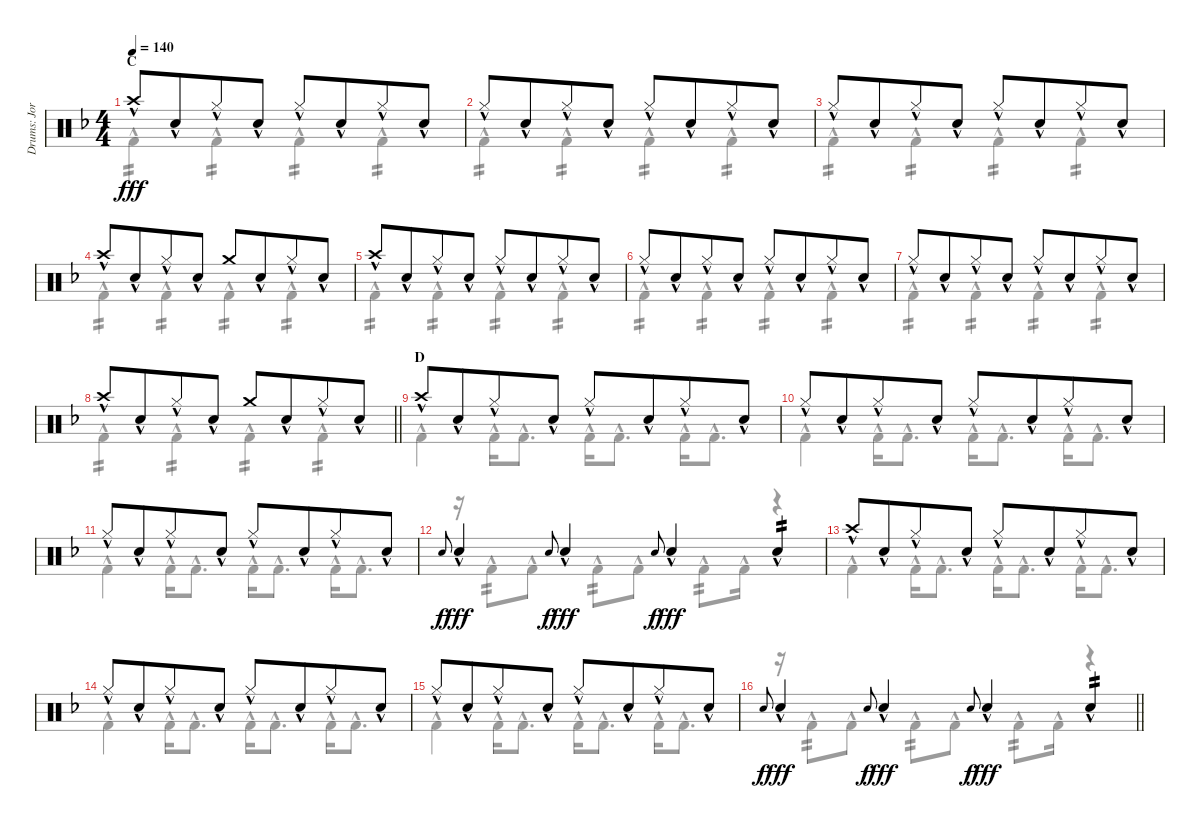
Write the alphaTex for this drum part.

\track ("Drums: Jorg" "Drums: Jor") {instrument percussion}
\staff {score}
\articulation defaults
\voice
\ts (4 4)
\section ("" "C")
\tempo 140
\clef neutral
\ks f "Crash high (hit)"{hac}.8{dy fff} "Snare (hit) 2"{hac}.8{beam merge} "Hi-Hat (closed)"{hac}.8 "Snare (hit) 2"{hac}.8 "Hi-Hat (closed)"{hac}.8 "Snare (hit) 2"{hac}.8{beam merge} "Hi-Hat (closed)"{hac}.8 "Snare (hit) 2"{hac}.8
|
"Hi-Hat (closed)"{hac}.8 "Snare (hit) 2"{hac}.8{beam merge} "Hi-Hat (closed)"{hac}.8 "Snare (hit) 2"{hac}.8 "Hi-Hat (closed)"{hac}.8 "Snare (hit) 2"{hac}.8{beam merge} "Hi-Hat (closed)"{hac}.8 "Snare (hit) 2"{hac}.8 |
"Hi-Hat (closed)"{hac}.8 "Snare (hit) 2"{hac}.8{beam merge} "Hi-Hat (closed)"{hac}.8 "Snare (hit) 2"{hac}.8 "Hi-Hat (closed)"{hac}.8 "Snare (hit) 2"{hac}.8{beam merge} "Hi-Hat (closed)"{hac}.8 "Snare (hit) 2"{hac}.8 |
"Crash high (hit)"{hac}.8 "Snare (hit) 2"{hac}.8{beam merge} "Hi-Hat (closed)"{hac}.8 "Snare (hit) 2"{hac}.8 "Crash medium (hit)".8 "Snare (hit) 2"{hac}.8{beam merge} "Hi-Hat (closed)"{hac}.8 "Snare (hit) 2"{hac}.8 |
"Crash high (hit)"{hac}.8 "Snare (hit) 2"{hac}.8{beam merge} "Hi-Hat (closed)"{hac}.8 "Snare (hit) 2"{hac}.8 "Hi-Hat (closed)"{hac}.8 "Snare (hit) 2"{hac}.8{beam merge} "Hi-Hat (closed)"{hac}.8 "Snare (hit) 2"{hac}.8 |
"Hi-Hat (closed)"{hac}.8 "Snare (hit) 2"{hac}.8{beam merge} "Hi-Hat (closed)"{hac}.8 "Snare (hit) 2"{hac}.8 "Hi-Hat (closed)"{hac}.8 "Snare (hit) 2"{hac}.8{beam merge} "Hi-Hat (closed)"{hac}.8 "Snare (hit) 2"{hac}.8 |
"Hi-Hat (closed)"{hac}.8 "Snare (hit) 2"{hac}.8{beam merge} "Hi-Hat (closed)"{hac}.8 "Snare (hit) 2"{hac}.8 "Hi-Hat (closed)"{hac}.8 "Snare (hit) 2"{hac}.8{beam merge} "Hi-Hat (closed)"{hac}.8 "Snare (hit) 2"{hac}.8 |
\barLineRight lightlight "Crash high (hit)"{hac}.8 "Snare (hit) 2"{hac}.8{beam merge} "Hi-Hat (closed)"{hac}.8 "Snare (hit) 2"{hac}.8 "Crash medium (hit)".8 "Snare (hit) 2"{hac}.8{beam merge} "Hi-Hat (closed)"{hac}.8 "Snare (hit) 2"{hac}.8
|
\section ("" "D")
"Crash high (hit)"{hac}.8 "Snare (hit) 2"{hac}.8{beam merge} "Hi-Hat (closed)"{hac}.8 "Snare (hit) 2"{hac}.8 "Hi-Hat (closed)"{hac}.8 "Snare (hit) 2"{hac}.8{beam merge} "Hi-Hat (closed)"{hac}.8 "Snare (hit) 2"{hac}.8 |
"Hi-Hat (closed)"{hac}.8 "Snare (hit) 2"{hac}.8{beam merge} "Hi-Hat (closed)"{hac}.8 "Snare (hit) 2"{hac}.8 "Hi-Hat (closed)"{hac}.8 "Snare (hit) 2"{hac}.8{beam merge} "Hi-Hat (closed)"{hac}.8 "Snare (hit) 2"{hac}.8 |
"Hi-Hat (closed)"{hac}.8 "Snare (hit) 2"{hac}.8{beam merge} "Hi-Hat (closed)"{hac}.8 "Snare (hit) 2"{hac}.8 "Hi-Hat (closed)"{hac}.8 "Snare (hit) 2"{hac}.8{beam merge} "Hi-Hat (closed)"{hac}.8 "Snare (hit) 2"{hac}.8 |
"Snare (hit) 2".8{gr onbeat dy f} "Electric Snare (hit)"{hac}.4{dy fff} "Snare (hit) 2".8{gr onbeat dy f} "Electric Snare (hit)"{hac}.4{dy fff} "Snare (hit) 2".8{gr onbeat dy f} "Electric Snare (hit)"{hac}.4{dy fff} "Snare (hit) 2"{hac}.4{tp 2} |
"Crash high (hit)"{hac}.8 "Snare (hit) 2"{hac}.8{beam merge} "Hi-Hat (closed)"{hac}.8 "Snare (hit) 2"{hac}.8 "Hi-Hat (closed)"{hac}.8 "Snare (hit) 2"{hac}.8{beam merge} "Hi-Hat (closed)"{hac}.8 "Snare (hit) 2"{hac}.8 |
"Hi-Hat (closed)"{hac}.8 "Snare (hit) 2"{hac}.8{beam merge} "Hi-Hat (closed)"{hac}.8 "Snare (hit) 2"{hac}.8 "Hi-Hat (closed)"{hac}.8 "Snare (hit) 2"{hac}.8{beam merge} "Hi-Hat (closed)"{hac}.8 "Snare (hit) 2"{hac}.8 |
"Hi-Hat (closed)"{hac}.8 "Snare (hit) 2"{hac}.8{beam merge} "Hi-Hat (closed)"{hac}.8 "Snare (hit) 2"{hac}.8 "Hi-Hat (closed)"{hac}.8 "Snare (hit) 2"{hac}.8{beam merge} "Hi-Hat (closed)"{hac}.8 "Snare (hit) 2"{hac}.8 |
\barLineRight lightlight "Snare (hit) 2".8{gr onbeat dy f} "Electric Snare (hit)"{hac}.4{dy fff} "Snare (hit) 2".8{gr onbeat dy f} "Electric Snare (hit)"{hac}.4{dy fff} "Snare (hit) 2".8{gr onbeat dy f} "Electric Snare (hit)"{hac}.4{dy fff} "Snare (hit) 2"{hac}.4{tp 2}
\voice
\clef neutral
\ottava regular
\simile none
\ks f "Kick (hit) 2"{hac}.4{tp 2 dy fff beam merge} "Kick (hit) 2"{hac}.4{tp 2} "Kick (hit) 2"{hac}.4{tp 2} "Kick (hit) 2"{hac}.4{tp 2}
|
"Kick (hit) 2"{hac}.4{tp 2 beam merge} "Kick (hit) 2"{hac}.4{tp 2} "Kick (hit) 2"{hac}.4{tp 2} "Kick (hit) 2"{hac}.4{tp 2} |
"Kick (hit) 2"{hac}.4{tp 2 beam merge} "Kick (hit) 2"{hac}.4{tp 2} "Kick (hit) 2"{hac}.4{tp 2} "Kick (hit) 2"{hac}.4{tp 2} |
"Kick (hit) 2"{hac}.4{tp 2 beam merge} "Kick (hit) 2"{hac}.4{tp 2} "Kick (hit) 2"{hac}.4{tp 2} "Kick (hit) 2"{hac}.4{tp 2} |
"Kick (hit) 2"{hac}.4{tp 2 beam merge} "Kick (hit) 2"{hac}.4{tp 2} "Kick (hit) 2"{hac}.4{tp 2} "Kick (hit) 2"{hac}.4{tp 2} |
"Kick (hit) 2"{hac}.4{tp 2 beam merge} "Kick (hit) 2"{hac}.4{tp 2} "Kick (hit) 2"{hac}.4{tp 2} "Kick (hit) 2"{hac}.4{tp 2} |
"Kick (hit) 2"{hac}.4{tp 2 beam merge} "Kick (hit) 2"{hac}.4{tp 2} "Kick (hit) 2"{hac}.4{tp 2} "Kick (hit) 2"{hac}.4{tp 2} |
\barLineRight lightlight "Kick (hit) 2"{hac}.4{tp 2 beam merge} "Kick (hit) 2"{hac}.4{tp 2} "Kick (hit) 2"{hac}.4{tp 2} "Kick (hit) 2"{hac}.4{tp 2}
|
"Kick (hit) 2"{hac}.4 "Kick (hit) 2"{hac}.16 "Kick (hit) 2"{hac}.8{d} "Kick (hit) 2"{hac}.16 "Kick (hit) 2"{hac}.8{d} "Kick (hit) 2"{hac}.16 "Kick (hit) 2"{hac}.8{d} |
"Kick (hit) 2"{hac}.4 "Kick (hit) 2"{hac}.16 "Kick (hit) 2"{hac}.8{d} "Kick (hit) 2"{hac}.16 "Kick (hit) 2"{hac}.8{d} "Kick (hit) 2"{hac}.16 "Kick (hit) 2"{hac}.8{d} |
"Kick (hit) 2"{hac}.4 "Kick (hit) 2"{hac}.16 "Kick (hit) 2"{hac}.8{d} "Kick (hit) 2"{hac}.16 "Kick (hit) 2"{hac}.8{d} "Kick (hit) 2"{hac}.16 "Kick (hit) 2"{hac}.8{d} |
r.16 "Kick (hit) 2"{hac}.8{tp 2} "Kick (hit) 2"{hac}.8 "Kick (hit) 2"{hac}.8{tp 2} "Kick (hit) 2"{hac}.8 "Kick (hit) 2"{hac}.8{tp 2} "Kick (hit) 2"{hac}.16 r.4 |
"Kick (hit) 2"{hac}.4 "Kick (hit) 2"{hac}.16 "Kick (hit) 2"{hac}.8{d} "Kick (hit) 2"{hac}.16 "Kick (hit) 2"{hac}.8{d} "Kick (hit) 2"{hac}.16 "Kick (hit) 2"{hac}.8{d} |
"Kick (hit) 2"{hac}.4 "Kick (hit) 2"{hac}.16 "Kick (hit) 2"{hac}.8{d} "Kick (hit) 2"{hac}.16 "Kick (hit) 2"{hac}.8{d} "Kick (hit) 2"{hac}.16 "Kick (hit) 2"{hac}.8{d} |
"Kick (hit) 2"{hac}.4 "Kick (hit) 2"{hac}.16 "Kick (hit) 2"{hac}.8{d} "Kick (hit) 2"{hac}.16 "Kick (hit) 2"{hac}.8{d} "Kick (hit) 2"{hac}.16 "Kick (hit) 2"{hac}.8{d} |
\barLineRight lightlight
r.16 "Kick (hit) 2"{hac}.8{tp 2} "Kick (hit) 2"{hac}.8 "Kick (hit) 2"{hac}.8{tp 2} "Kick (hit) 2"{hac}.8 "Kick (hit) 2"{hac}.8{tp 2} "Kick (hit) 2"{hac}.16 r.4
